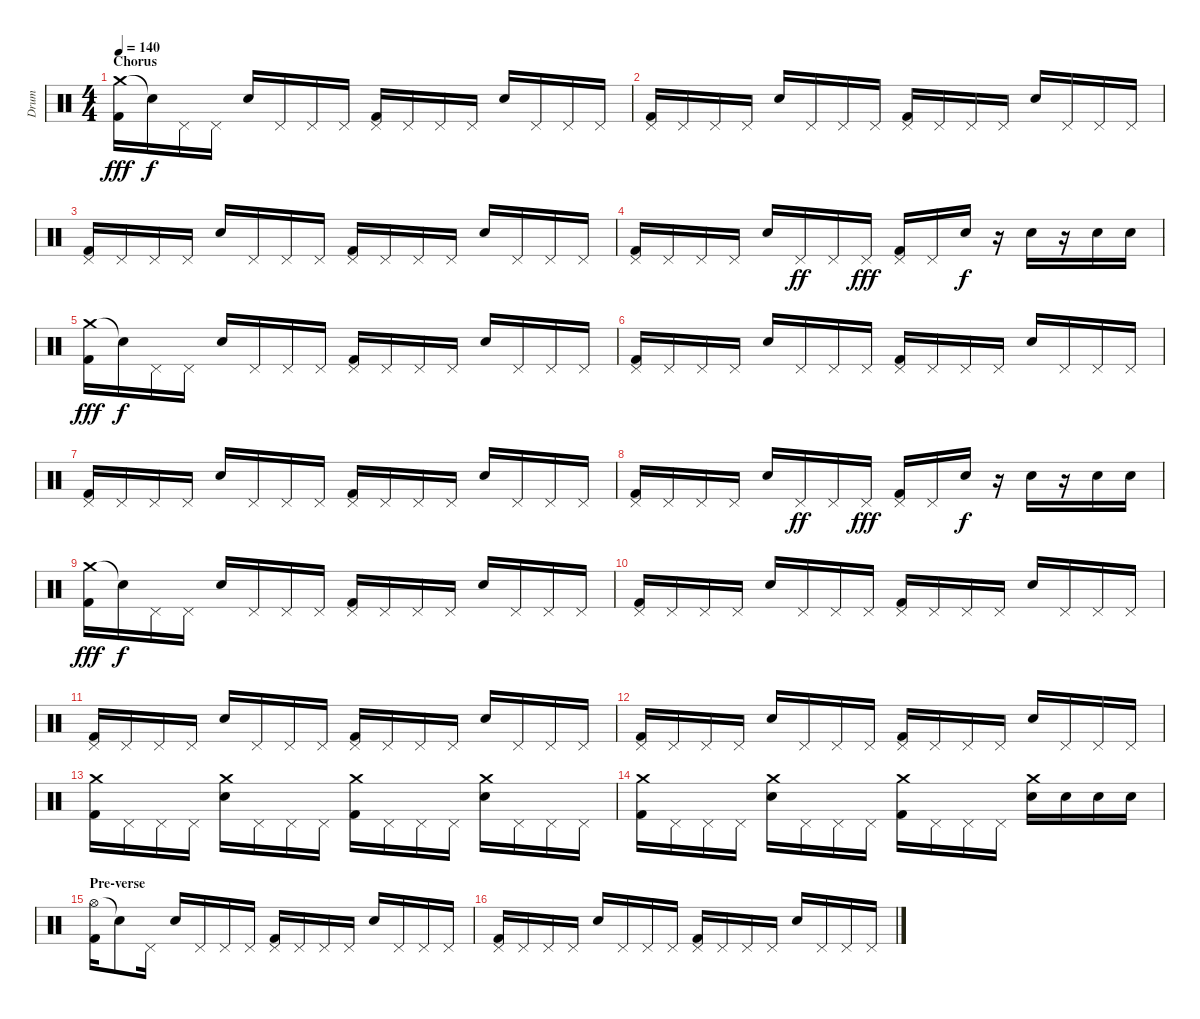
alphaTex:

\track ("Drum" "Drum") {instrument percussion}
\staff {score}
\articulation defaults
\ts (4 4)
\section ("" "Chorus")
\tempo 140
\clef neutral
\ks c
("Crash medium (hit)" "Kick (hit) 2").16{dy fff} "Snare (hit)"{t}.16{dy f} "Pedal Hi-Hat (hit)".16 "Pedal Hi-Hat (hit)".16 "Snare (hit) 2".16 "Pedal Hi-Hat (hit)".16 "Pedal Hi-Hat (hit)".16 "Pedal Hi-Hat (hit)".16 ("Pedal Hi-Hat (hit)" "Kick (hit) 2").16 "Pedal Hi-Hat (hit)".16 "Pedal Hi-Hat (hit)".16 "Pedal Hi-Hat (hit)".16 "Snare (hit) 2".16 "Pedal Hi-Hat (hit)".16 "Pedal Hi-Hat (hit)".16 "Pedal Hi-Hat (hit)".16 |
("Pedal Hi-Hat (hit)" "Kick (hit) 2").16 "Pedal Hi-Hat (hit)".16 "Pedal Hi-Hat (hit)".16 "Pedal Hi-Hat (hit)".16 "Snare (hit) 2".16 "Pedal Hi-Hat (hit)".16 "Pedal Hi-Hat (hit)".16 "Pedal Hi-Hat (hit)".16 ("Pedal Hi-Hat (hit)" "Kick (hit) 2").16 "Pedal Hi-Hat (hit)".16 "Pedal Hi-Hat (hit)".16 "Pedal Hi-Hat (hit)".16 "Snare (hit) 2".16 "Pedal Hi-Hat (hit)".16 "Pedal Hi-Hat (hit)".16 "Pedal Hi-Hat (hit)".16 |
("Pedal Hi-Hat (hit)" "Kick (hit) 2").16 "Pedal Hi-Hat (hit)".16 "Pedal Hi-Hat (hit)".16 "Pedal Hi-Hat (hit)".16 "Snare (hit) 2".16 "Pedal Hi-Hat (hit)".16 "Pedal Hi-Hat (hit)".16 "Pedal Hi-Hat (hit)".16 ("Pedal Hi-Hat (hit)" "Kick (hit) 2").16 "Pedal Hi-Hat (hit)".16 "Pedal Hi-Hat (hit)".16 "Pedal Hi-Hat (hit)".16 "Snare (hit) 2".16 "Pedal Hi-Hat (hit)".16 "Pedal Hi-Hat (hit)".16 "Pedal Hi-Hat (hit)".16 |
("Pedal Hi-Hat (hit)" "Kick (hit) 2").16 "Pedal Hi-Hat (hit)".16 "Pedal Hi-Hat (hit)".16 "Pedal Hi-Hat (hit)".16 "Snare (hit) 2".16 "Pedal Hi-Hat (hit)".16{dy ff} "Pedal Hi-Hat (hit)".16 "Pedal Hi-Hat (hit)".16{dy fff} ("Pedal Hi-Hat (hit)" "Kick (hit) 2").16 "Pedal Hi-Hat (hit)".16 "Snare (hit) 2".16{dy f} r.16 "Snare (hit) 2".16 r.16 "Snare (hit) 2".16 "Snare (hit) 2".16 |
("Crash medium (hit)" "Kick (hit) 2").16{dy fff} "Snare (hit)"{t}.16{dy f} "Pedal Hi-Hat (hit)".16 "Pedal Hi-Hat (hit)".16 "Snare (hit) 2".16 "Pedal Hi-Hat (hit)".16 "Pedal Hi-Hat (hit)".16 "Pedal Hi-Hat (hit)".16 ("Pedal Hi-Hat (hit)" "Kick (hit) 2").16 "Pedal Hi-Hat (hit)".16 "Pedal Hi-Hat (hit)".16 "Pedal Hi-Hat (hit)".16 "Snare (hit) 2".16 "Pedal Hi-Hat (hit)".16 "Pedal Hi-Hat (hit)".16 "Pedal Hi-Hat (hit)".16 |
("Pedal Hi-Hat (hit)" "Kick (hit) 2").16 "Pedal Hi-Hat (hit)".16 "Pedal Hi-Hat (hit)".16 "Pedal Hi-Hat (hit)".16 "Snare (hit) 2".16 "Pedal Hi-Hat (hit)".16 "Pedal Hi-Hat (hit)".16 "Pedal Hi-Hat (hit)".16 ("Pedal Hi-Hat (hit)" "Kick (hit) 2").16 "Pedal Hi-Hat (hit)".16 "Pedal Hi-Hat (hit)".16 "Pedal Hi-Hat (hit)".16 "Snare (hit) 2".16 "Pedal Hi-Hat (hit)".16 "Pedal Hi-Hat (hit)".16 "Pedal Hi-Hat (hit)".16 |
("Pedal Hi-Hat (hit)" "Kick (hit) 2").16 "Pedal Hi-Hat (hit)".16 "Pedal Hi-Hat (hit)".16 "Pedal Hi-Hat (hit)".16 "Snare (hit) 2".16 "Pedal Hi-Hat (hit)".16 "Pedal Hi-Hat (hit)".16 "Pedal Hi-Hat (hit)".16 ("Pedal Hi-Hat (hit)" "Kick (hit) 2").16 "Pedal Hi-Hat (hit)".16 "Pedal Hi-Hat (hit)".16 "Pedal Hi-Hat (hit)".16 "Snare (hit) 2".16 "Pedal Hi-Hat (hit)".16 "Pedal Hi-Hat (hit)".16 "Pedal Hi-Hat (hit)".16 |
("Pedal Hi-Hat (hit)" "Kick (hit) 2").16 "Pedal Hi-Hat (hit)".16 "Pedal Hi-Hat (hit)".16 "Pedal Hi-Hat (hit)".16 "Snare (hit) 2".16 "Pedal Hi-Hat (hit)".16{dy ff} "Pedal Hi-Hat (hit)".16 "Pedal Hi-Hat (hit)".16{dy fff} ("Pedal Hi-Hat (hit)" "Kick (hit) 2").16 "Pedal Hi-Hat (hit)".16 "Snare (hit) 2".16{dy f} r.16 "Snare (hit) 2".16 r.16 "Snare (hit) 2".16 "Snare (hit) 2".16 |
("Crash medium (hit)" "Kick (hit) 2").16{dy fff} "Snare (hit)"{t}.16{dy f} "Pedal Hi-Hat (hit)".16 "Pedal Hi-Hat (hit)".16 "Snare (hit) 2".16 "Pedal Hi-Hat (hit)".16 "Pedal Hi-Hat (hit)".16 "Pedal Hi-Hat (hit)".16 ("Pedal Hi-Hat (hit)" "Kick (hit) 2").16 "Pedal Hi-Hat (hit)".16 "Pedal Hi-Hat (hit)".16 "Pedal Hi-Hat (hit)".16 "Snare (hit) 2".16 "Pedal Hi-Hat (hit)".16 "Pedal Hi-Hat (hit)".16 "Pedal Hi-Hat (hit)".16 |
("Pedal Hi-Hat (hit)" "Kick (hit) 2").16 "Pedal Hi-Hat (hit)".16 "Pedal Hi-Hat (hit)".16 "Pedal Hi-Hat (hit)".16 "Snare (hit) 2".16 "Pedal Hi-Hat (hit)".16 "Pedal Hi-Hat (hit)".16 "Pedal Hi-Hat (hit)".16 ("Pedal Hi-Hat (hit)" "Kick (hit) 2").16 "Pedal Hi-Hat (hit)".16 "Pedal Hi-Hat (hit)".16 "Pedal Hi-Hat (hit)".16 "Snare (hit) 2".16 "Pedal Hi-Hat (hit)".16 "Pedal Hi-Hat (hit)".16 "Pedal Hi-Hat (hit)".16 |
("Pedal Hi-Hat (hit)" "Kick (hit) 2").16 "Pedal Hi-Hat (hit)".16 "Pedal Hi-Hat (hit)".16 "Pedal Hi-Hat (hit)".16 "Snare (hit) 2".16 "Pedal Hi-Hat (hit)".16 "Pedal Hi-Hat (hit)".16 "Pedal Hi-Hat (hit)".16 ("Pedal Hi-Hat (hit)" "Kick (hit) 2").16 "Pedal Hi-Hat (hit)".16 "Pedal Hi-Hat (hit)".16 "Pedal Hi-Hat (hit)".16 "Snare (hit) 2".16 "Pedal Hi-Hat (hit)".16 "Pedal Hi-Hat (hit)".16 "Pedal Hi-Hat (hit)".16 |
("Pedal Hi-Hat (hit)" "Kick (hit) 2").16 "Pedal Hi-Hat (hit)".16 "Pedal Hi-Hat (hit)".16 "Pedal Hi-Hat (hit)".16 "Snare (hit) 2".16 "Pedal Hi-Hat (hit)".16 "Pedal Hi-Hat (hit)".16 "Pedal Hi-Hat (hit)".16 ("Pedal Hi-Hat (hit)" "Kick (hit) 2").16 "Pedal Hi-Hat (hit)".16 "Pedal Hi-Hat (hit)".16 "Pedal Hi-Hat (hit)".16 "Snare (hit) 2".16 "Pedal Hi-Hat (hit)".16 "Pedal Hi-Hat (hit)".16 "Pedal Hi-Hat (hit)".16 |
("Crash medium (hit)" "Kick (hit) 2").16 "Pedal Hi-Hat (hit)".16 "Pedal Hi-Hat (hit)".16 "Pedal Hi-Hat (hit)".16 ("Crash medium (hit)" "Snare (hit) 2").16 "Pedal Hi-Hat (hit)".16 "Pedal Hi-Hat (hit)".16 "Pedal Hi-Hat (hit)".16 ("Crash medium (hit)" "Kick (hit) 2").16 "Pedal Hi-Hat (hit)".16 "Pedal Hi-Hat (hit)".16 "Pedal Hi-Hat (hit)".16 ("Crash medium (hit)" "Snare (hit) 2").16 "Pedal Hi-Hat (hit)".16 "Pedal Hi-Hat (hit)".16 "Pedal Hi-Hat (hit)".16 |
("Crash medium (hit)" "Kick (hit) 2").16 "Pedal Hi-Hat (hit)".16 "Pedal Hi-Hat (hit)".16 "Pedal Hi-Hat (hit)".16 ("Crash medium (hit)" "Snare (hit) 2").16 "Pedal Hi-Hat (hit)".16 "Pedal Hi-Hat (hit)".16 "Pedal Hi-Hat (hit)".16 ("Crash medium (hit)" "Kick (hit) 2").16 "Pedal Hi-Hat (hit)".16 "Pedal Hi-Hat (hit)".16 "Pedal Hi-Hat (hit)".16 ("Crash medium (hit)" "Snare (hit) 2").16 "Snare (hit) 2".16 "Snare (hit) 2".16 "Snare (hit) 2".16 |
\section ("" "Pre-verse")
("Hi-Hat (open)" "Kick (hit) 2").16 "Snare (hit)"{t}.8 "Pedal Hi-Hat (hit)".16 "Snare (hit) 2".16 "Pedal Hi-Hat (hit)".16 "Pedal Hi-Hat (hit)".16 "Pedal Hi-Hat (hit)".16 ("Pedal Hi-Hat (hit)" "Kick (hit) 2").16 "Pedal Hi-Hat (hit)".16 "Pedal Hi-Hat (hit)".16 "Pedal Hi-Hat (hit)".16 "Snare (hit) 2".16 "Pedal Hi-Hat (hit)".16 "Pedal Hi-Hat (hit)".16 "Pedal Hi-Hat (hit)".16 |
("Pedal Hi-Hat (hit)" "Kick (hit) 2").16 "Pedal Hi-Hat (hit)".16 "Pedal Hi-Hat (hit)".16 "Pedal Hi-Hat (hit)".16 "Snare (hit) 2".16 "Pedal Hi-Hat (hit)".16 "Pedal Hi-Hat (hit)".16 "Pedal Hi-Hat (hit)".16 ("Pedal Hi-Hat (hit)" "Kick (hit) 2").16 "Pedal Hi-Hat (hit)".16 "Pedal Hi-Hat (hit)".16 "Pedal Hi-Hat (hit)".16 "Snare (hit) 2".16 "Pedal Hi-Hat (hit)".16 "Pedal Hi-Hat (hit)".16 "Pedal Hi-Hat (hit)".16
